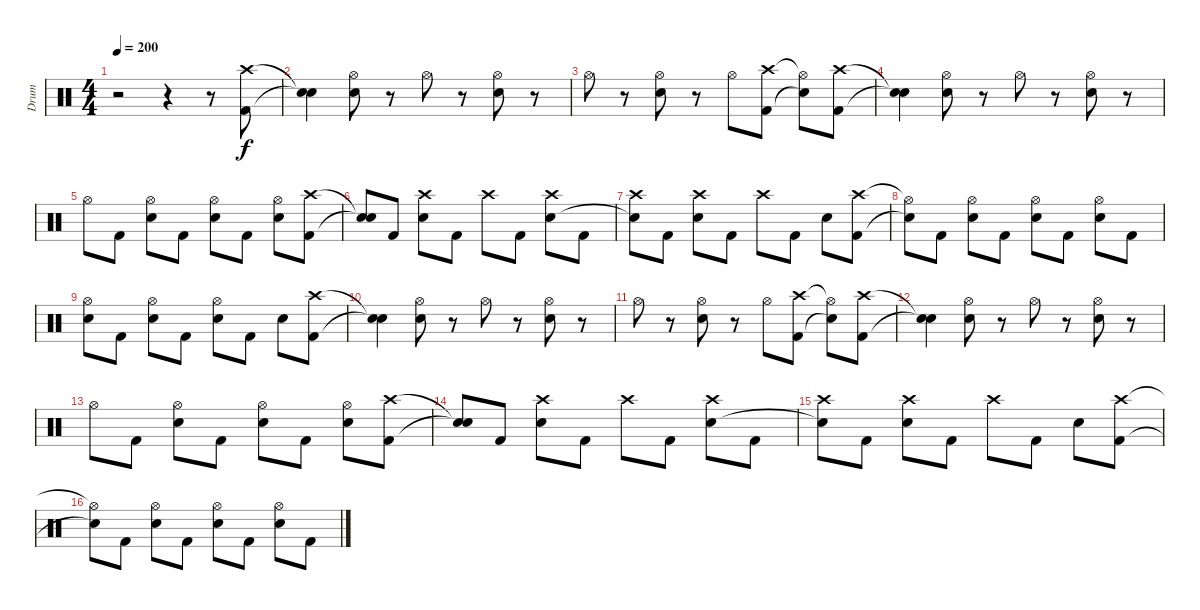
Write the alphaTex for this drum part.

\track ("Drum" "Drum") {instrument percussion}
\staff {score}
\articulation defaults
\ts (4 4)
\tempo 200
\clef neutral
\ks c
r.2{dy f} r.4 r.8 ("Crash high (hit)" "Kick (hit) 2").8 |
("Snare (hit)"{t} "Snare (hit)"{t}).4 ("Hi-Hat (open)" "Electric Snare (hit)").8 r.8 "Hi-Hat (open)".8 r.8 ("Hi-Hat (open)" "Electric Snare (hit)").8 r.8 |
"Hi-Hat (open)".8 r.8 ("Hi-Hat (open)" "Electric Snare (hit)").8 r.8 "Hi-Hat (open)".8 ("Crash high (hit)" "Kick (hit) 2").8 ("Hi-Hat (open)"{t} "Snare (hit)"{t}).8 ("Crash high (hit)" "Kick (hit) 2").8 |
("Snare (hit)"{t} "Snare (hit)"{t}).4 ("Hi-Hat (open)" "Electric Snare (hit)").8 r.8 "Hi-Hat (open)".8 r.8 ("Hi-Hat (open)" "Electric Snare (hit)").8 r.8 |
"Hi-Hat (open)".8 "Kick (hit) 2".8 ("Hi-Hat (open)" "Electric Snare (hit)").8 "Kick (hit) 2".8 ("Hi-Hat (open)" "Electric Snare (hit)").8 "Kick (hit) 2".8 ("Hi-Hat (open)" "Electric Snare (hit)").8 ("Crash high (hit)" "Kick (hit) 2").8 |
("Snare (hit)"{t} "Snare (hit)"{t}).8 "Kick (hit) 2".8 ("Crash high (hit)" "Electric Snare (hit)").8 "Kick (hit) 2".8 "Crash high (hit)".8 "Kick (hit) 2".8 ("Crash high (hit)" "Electric Snare (hit)").8 "Kick (hit) 2".8 |
("Crash high (hit)" "Snare (hit)"{t}).8 "Kick (hit) 2".8 ("Crash high (hit)" "Electric Snare (hit)").8 "Kick (hit) 2".8 "Crash high (hit)".8 "Kick (hit) 2".8 "Electric Snare (hit)".8 ("Crash high (hit)" "Kick (hit) 2").8 |
("Hi-Hat (open)"{t} "Snare (hit)"{t}).8 "Kick (hit) 2".8 ("Hi-Hat (open)" "Electric Snare (hit)").8 "Kick (hit) 2".8 ("Hi-Hat (open)" "Electric Snare (hit)").8 "Kick (hit) 2".8 ("Hi-Hat (open)" "Electric Snare (hit)").8 "Kick (hit) 2".8 |
("Hi-Hat (open)" "Electric Snare (hit)").8 "Kick (hit) 2".8 ("Hi-Hat (open)" "Electric Snare (hit)").8 "Kick (hit) 2".8 ("Hi-Hat (open)" "Electric Snare (hit)").8 "Kick (hit) 2".8 "Electric Snare (hit)".8 ("Crash high (hit)" "Kick (hit) 2").8 |
("Snare (hit)"{t} "Snare (hit)"{t}).4 ("Hi-Hat (open)" "Electric Snare (hit)").8 r.8 "Hi-Hat (open)".8 r.8 ("Hi-Hat (open)" "Electric Snare (hit)").8 r.8 |
"Hi-Hat (open)".8 r.8 ("Hi-Hat (open)" "Electric Snare (hit)").8 r.8 "Hi-Hat (open)".8 ("Crash high (hit)" "Kick (hit) 2").8 ("Hi-Hat (open)"{t} "Snare (hit)"{t}).8 ("Crash high (hit)" "Kick (hit) 2").8 |
("Snare (hit)"{t} "Snare (hit)"{t}).4 ("Hi-Hat (open)" "Electric Snare (hit)").8 r.8 "Hi-Hat (open)".8 r.8 ("Hi-Hat (open)" "Electric Snare (hit)").8 r.8 |
"Hi-Hat (open)".8 "Kick (hit) 2".8 ("Hi-Hat (open)" "Electric Snare (hit)").8 "Kick (hit) 2".8 ("Hi-Hat (open)" "Electric Snare (hit)").8 "Kick (hit) 2".8 ("Hi-Hat (open)" "Electric Snare (hit)").8 ("Crash high (hit)" "Kick (hit) 2").8 |
("Snare (hit)"{t} "Snare (hit)"{t}).8 "Kick (hit) 2".8 ("Crash high (hit)" "Electric Snare (hit)").8 "Kick (hit) 2".8 "Crash high (hit)".8 "Kick (hit) 2".8 ("Crash high (hit)" "Electric Snare (hit)").8 "Kick (hit) 2".8 |
("Crash high (hit)" "Snare (hit)"{t}).8 "Kick (hit) 2".8 ("Crash high (hit)" "Electric Snare (hit)").8 "Kick (hit) 2".8 "Crash high (hit)".8 "Kick (hit) 2".8 "Electric Snare (hit)".8 ("Crash high (hit)" "Kick (hit) 2").8 |
("Hi-Hat (open)"{t} "Snare (hit)"{t}).8 "Kick (hit) 2".8 ("Hi-Hat (open)" "Electric Snare (hit)").8 "Kick (hit) 2".8 ("Hi-Hat (open)" "Electric Snare (hit)").8 "Kick (hit) 2".8 ("Hi-Hat (open)" "Electric Snare (hit)").8 "Kick (hit) 2".8
